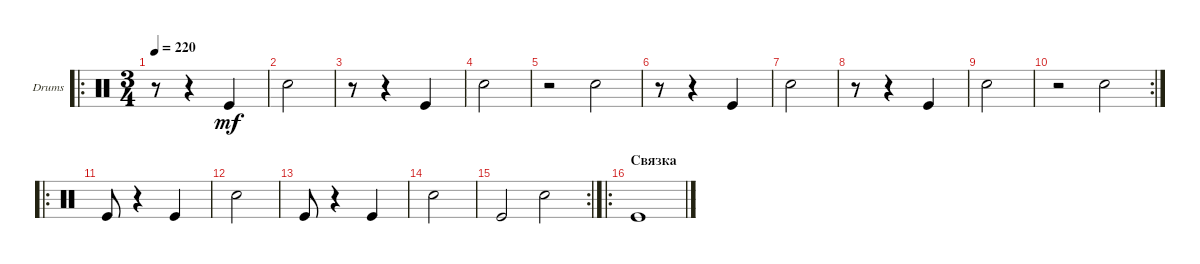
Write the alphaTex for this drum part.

\defaultSystemsLayout 4
\bracketExtendMode groupsimilarinstruments
\firstSystemTrackNameOrientation horizontal
\otherSystemsTrackNameOrientation horizontal
\track ("Drumkit" "Drums") {instrument percussion}
\staff {score}
\articulation defaults
\ro
\ts (3 4)
\tempo 220
\clef neutral
\ks c
r.8{dy mf} r.4 "Kick (hit)".4 |
"Snare (hit) 2".2 |
r.8 r.4 "Kick (hit)".4 |
"Snare (hit) 2".2 |
r.2 "Snare (hit) 2".2 |
r.8 r.4 "Kick (hit)".4 |
"Snare (hit) 2".2 |
r.8 r.4 "Kick (hit)".4 |
"Snare (hit) 2".2 |
\rc 2
r.2 "Snare (hit) 2".2 |
\ro "Kick (hit)".8
r.4 "Kick (hit)".4 |
"Snare (hit) 2".2 |
"Kick (hit)".8 r.4 "Kick (hit)".4 |
"Snare (hit) 2".2 |
\rc 2 "Kick (hit)".2 "Snare (hit) 2".2
|
\ro
\section ("" "Связка")
"Kick (hit)".1
